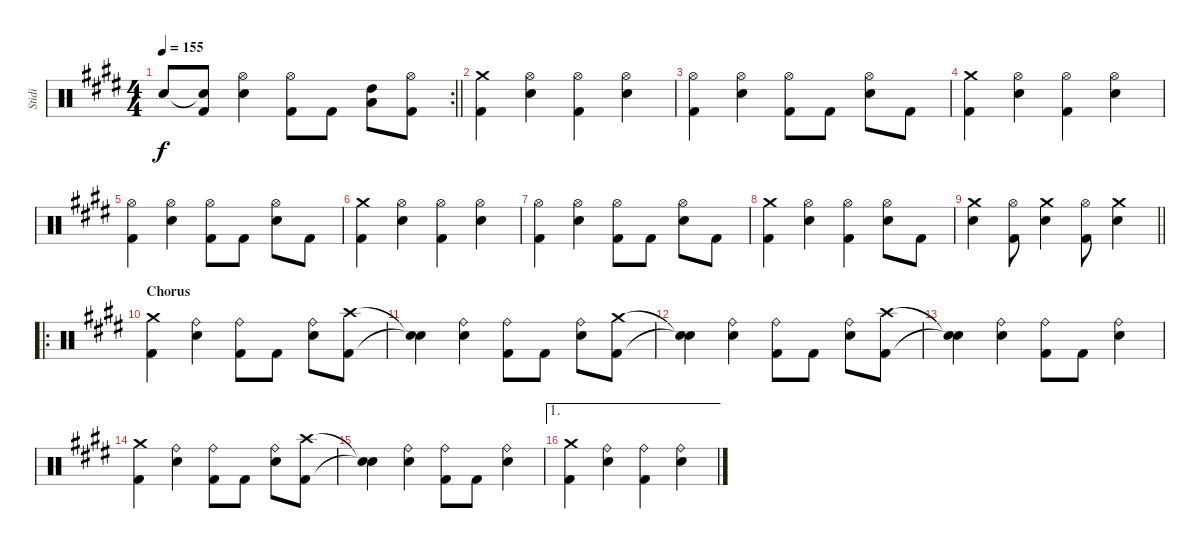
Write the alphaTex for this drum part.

\track ("Stidi" "Stidi") {instrument percussion}
\staff {score}
\articulation defaults
\rc 2
\ts (4 4)
\tempo 155
\clef neutral
\barLineRight lightlight
\ks e "Snare (hit)"{t}.8{dy f}
("Snare (hit)"{t} "Kick (hit) 2").8 ("Hi-Hat (open)" "Snare (hit) 2").4 ("Hi-Hat (open)" "Kick (hit) 2").8 "Kick (hit) 2".8 ("High Tom (hit)" "Low Tom (hit)").8 ("Hi-Hat (open)" "Kick (hit) 2").8 |
("Crash medium (hit)" "Kick (hit) 2").4 ("Hi-Hat (open)" "Snare (hit) 2").4 ("Hi-Hat (open)" "Kick (hit) 2").4 ("Hi-Hat (open)" "Snare (hit) 2").4 |
("Hi-Hat (open)" "Kick (hit) 2").4 ("Hi-Hat (open)" "Snare (hit) 2").4 ("Hi-Hat (open)" "Kick (hit) 2").8 "Kick (hit) 2".8 ("Hi-Hat (open)" "Snare (hit) 2").8 "Kick (hit) 2".8 |
("Crash medium (hit)" "Kick (hit) 2").4 ("Hi-Hat (open)" "Snare (hit) 2").4 ("Hi-Hat (open)" "Kick (hit) 2").4 ("Hi-Hat (open)" "Snare (hit) 2").4 |
("Hi-Hat (open)" "Kick (hit) 2").4 ("Hi-Hat (open)" "Snare (hit) 2").4 ("Hi-Hat (open)" "Kick (hit) 2").8 "Kick (hit) 2".8 ("Hi-Hat (open)" "Snare (hit) 2").8 "Kick (hit) 2".8 |
("Crash medium (hit)" "Kick (hit) 2").4 ("Hi-Hat (open)" "Snare (hit) 2").4 ("Hi-Hat (open)" "Kick (hit) 2").4 ("Hi-Hat (open)" "Snare (hit) 2").4 |
("Hi-Hat (open)" "Kick (hit) 2").4 ("Hi-Hat (open)" "Snare (hit) 2").4 ("Hi-Hat (open)" "Kick (hit) 2").8 "Kick (hit) 2".8 ("Hi-Hat (open)" "Snare (hit) 2").8 "Kick (hit) 2".8 |
("Crash medium (hit)" "Kick (hit) 2").4 ("Hi-Hat (open)" "Snare (hit) 2").4 ("Hi-Hat (open)" "Kick (hit) 2").4 ("Hi-Hat (open)" "Snare (hit) 2").8 "Kick (hit) 2".8 |
\barLineRight lightlight
("Crash medium (hit)" "Snare (hit) 2").4 ("Hi-Hat (open)" "Kick (hit) 2").8 ("Crash medium (hit)" "Snare (hit) 2").4 ("Hi-Hat (open)" "Kick (hit) 2").8 ("Crash medium (hit)" "Snare (hit) 2").4 |
\ro
\section ("" "Chorus")
("Crash medium (hit)" "Kick (hit) 2").4 ("Ride (bell)" "Snare (hit) 2").4 ("Ride (bell)" "Kick (hit) 2").8 "Kick (hit) 2".8 ("Ride (bell)" "Snare (hit) 2").8 ("Crash high (hit)" "Kick (hit) 2").8 |
("Snare (hit)"{t} "Snare (hit)"{t}).4 ("Ride (bell)" "Snare (hit) 2").4 ("Ride (bell)" "Kick (hit) 2").8 "Kick (hit) 2".8 ("Ride (bell)" "Snare (hit) 2").8 ("Crash medium (hit)" "Kick (hit) 2").8 |
("Snare (hit)"{t} "Snare (hit)"{t}).4 ("Ride (bell)" "Snare (hit) 2").4 ("Ride (bell)" "Kick (hit) 2").8 "Kick (hit) 2".8 ("Ride (bell)" "Snare (hit) 2").8 ("Crash high (hit)" "Kick (hit) 2").8 |
("Snare (hit)"{t} "Snare (hit)"{t}).4 ("Ride (bell)" "Snare (hit) 2").4 ("Ride (bell)" "Kick (hit) 2").8 "Kick (hit) 2".8 ("Ride (bell)" "Snare (hit) 2").4 |
("Crash medium (hit)" "Kick (hit) 2").4 ("Ride (bell)" "Snare (hit) 2").4 ("Ride (bell)" "Kick (hit) 2").8 "Kick (hit) 2".8 ("Ride (bell)" "Snare (hit) 2").8 ("Crash high (hit)" "Kick (hit) 2").8 |
("Snare (hit)"{t} "Snare (hit)"{t}).4 ("Ride (bell)" "Snare (hit) 2").4 ("Ride (bell)" "Kick (hit) 2").8 "Kick (hit) 2".8 ("Ride (bell)" "Snare (hit) 2").4 |
\ae 1
("Crash medium (hit)" "Kick (hit) 2").4 ("Ride (bell)" "Snare (hit) 2").4 ("Ride (bell)" "Kick (hit) 2").4 ("Ride (bell)" "Snare (hit) 2").4
